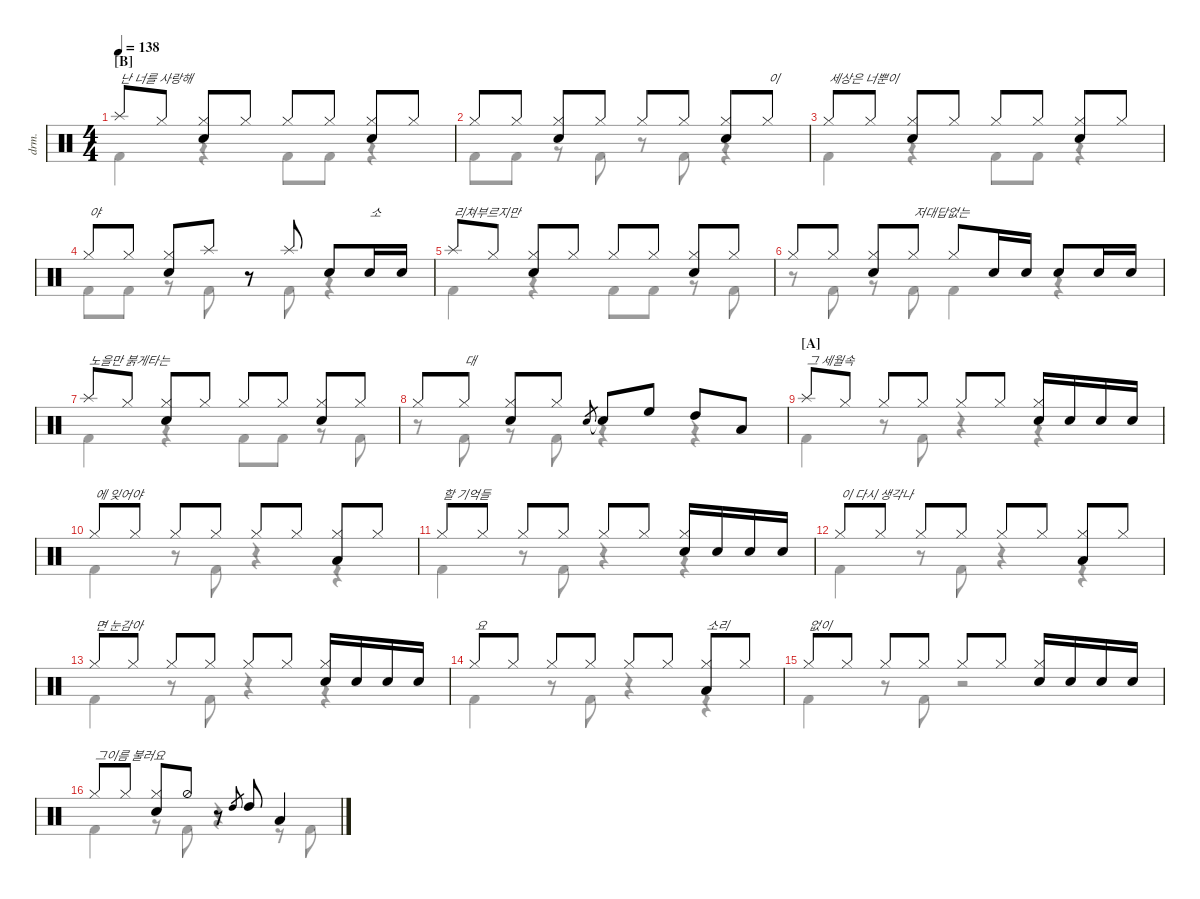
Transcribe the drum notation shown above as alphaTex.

\defaultSystemsLayout 4
\hideDynamics
\bracketExtendMode nobrackets
\track ("Drumkit" "drm.") {instrument percussion}
\staff {score}
\articulation defaults
\voice
\ts (4 4)
\section ("B" "")
\tempo 138
\clef neutral
\ks c "Splash (hit)".8{txt "난 너를 사랑해" dy mf beam Up} "Hi-Hat (closed)".8{beam Up}
("Hi-Hat (closed)" "Snare (hit) 2").8{beam Up} "Hi-Hat (closed)".8{beam Up} "Hi-Hat (closed)".8{beam Up} "Hi-Hat (closed)".8{beam Up} ("Hi-Hat (closed)" "Snare (hit) 2").8{beam Up} "Hi-Hat (closed)".8{beam Up} |
"Hi-Hat (closed)".8{beam Up} "Hi-Hat (closed)".8{beam Up} ("Hi-Hat (closed)" "Snare (hit) 2").8{beam Up} "Hi-Hat (closed)".8{beam Up} "Hi-Hat (closed)".8{beam Up} "Hi-Hat (closed)".8{beam Up} ("Hi-Hat (closed)" "Snare (hit) 2").8{beam Up} "Hi-Hat (closed)".8{txt "이" beam Up} |
"Hi-Hat (closed)".8{txt "세상은 너뿐이" beam Up} "Hi-Hat (closed)".8{beam Up} ("Hi-Hat (closed)" "Snare (hit) 2").8{beam Up} "Hi-Hat (closed)".8{beam Up} "Hi-Hat (closed)".8{beam Up} "Hi-Hat (closed)".8{beam Up} ("Hi-Hat (closed)" "Snare (hit) 2").8{beam Up} "Hi-Hat (closed)".8{beam Up} |
"Hi-Hat (closed)".8{txt "야" beam Up} "Hi-Hat (closed)".8{beam Up} ("Hi-Hat (closed)" "Snare (hit) 2").8{beam Up} "Splash (hit)".8{beam Up} r.8{beam Up} "Splash (hit)".8{beam Up} "Snare (hit) 2".8{beam Up} "Snare (hit) 2".16{txt "소" beam Up} "Snare (hit) 2".16{beam Up} |
"Splash (hit)".8{txt "리쳐부르지만" beam Up} "Hi-Hat (closed)".8{beam Up} ("Hi-Hat (closed)" "Snare (hit) 2").8{beam Up} "Hi-Hat (closed)".8{beam Up} "Hi-Hat (closed)".8{beam Up} "Hi-Hat (closed)".8{beam Up} ("Hi-Hat (closed)" "Snare (hit) 2").8{beam Up} "Hi-Hat (closed)".8{beam Up} |
"Hi-Hat (closed)".8{beam Up} "Hi-Hat (closed)".8{beam Up} ("Hi-Hat (closed)" "Snare (hit) 2").8{beam Up} "Hi-Hat (closed)".8{txt "저대답없는" beam Up} "Hi-Hat (closed)".8{beam Up} "Snare (hit) 2".16{beam Up} "Snare (hit) 2".16{beam Up} "Snare (hit) 2".8{beam Up} "Snare (hit) 2".16{beam Up} "Snare (hit) 2".16{beam Up} |
"Splash (hit)".8{txt "노을만 붉게타는" beam Up} "Hi-Hat (closed)".8{beam Up} ("Hi-Hat (closed)" "Snare (hit) 2").8{beam Up} "Hi-Hat (closed)".8{beam Up} "Hi-Hat (closed)".8{beam Up} "Hi-Hat (closed)".8{beam Up} ("Hi-Hat (closed)" "Snare (hit) 2").8{beam Up} "Hi-Hat (closed)".8{beam Up} |
"Hi-Hat (closed)".8{beam Up} "Hi-Hat (closed)".8{txt "대" beam Up} ("Hi-Hat (closed)" "Snare (hit) 2").8{beam Up} "Hi-Hat (closed)".8{beam Up} "Snare (hit) 2".8{gr beam Up} "Snare (hit) 2"{t}.8{beam Up} "High Floor Tom (hit)".8{beam Up} "High Tom (hit)".8{beam Up} "Low Tom (hit)".8{beam Up} |
\section ("A" "")
"Splash (hit)".8{txt "그 세월속" beam Up} "Hi-Hat (closed)".8{beam Up} "Hi-Hat (closed)".8{beam Up} "Hi-Hat (closed)".8{beam Up} "Hi-Hat (closed)".8{beam Up} "Hi-Hat (closed)".8{beam Up} ("Hi-Hat (closed)" "Snare (hit) 2").16{beam Up} "Snare (hit) 2".16{beam Up} "Snare (hit) 2".16{beam Up} "Snare (hit) 2".16{beam Up} |
"Hi-Hat (closed)".8{txt "에 잊어야" beam Up} "Hi-Hat (closed)".8{beam Up} "Hi-Hat (closed)".8{beam Up} "Hi-Hat (closed)".8{beam Up} "Hi-Hat (closed)".8{beam Up} "Hi-Hat (closed)".8{beam Up} ("Hi-Hat (closed)" "Low Tom (hit)").8{beam Up} "Hi-Hat (closed)".8{beam Up} |
"Hi-Hat (closed)".8{txt "할 기억들" beam Up} "Hi-Hat (closed)".8{beam Up} "Hi-Hat (closed)".8{beam Up} "Hi-Hat (closed)".8{beam Up} "Hi-Hat (closed)".8{beam Up} "Hi-Hat (closed)".8{beam Up} ("Hi-Hat (closed)" "Snare (hit) 2").16{beam Up} "Snare (hit) 2".16{beam Up} "Snare (hit) 2".16{beam Up} "Snare (hit) 2".16{beam Up} |
"Hi-Hat (closed)".8{txt "이 다시 생각나" beam Up} "Hi-Hat (closed)".8{beam Up} "Hi-Hat (closed)".8{beam Up} "Hi-Hat (closed)".8{beam Up} "Hi-Hat (closed)".8{beam Up} "Hi-Hat (closed)".8{beam Up} ("Hi-Hat (closed)" "Low Tom (hit)").8{beam Up} "Hi-Hat (closed)".8{beam Up} |
"Hi-Hat (closed)".8{txt "면 눈감아" beam Up} "Hi-Hat (closed)".8{beam Up} "Hi-Hat (closed)".8{beam Up} "Hi-Hat (closed)".8{beam Up} "Hi-Hat (closed)".8{beam Up} "Hi-Hat (closed)".8{beam Up} ("Hi-Hat (closed)" "Snare (hit) 2").16{beam Up} "Snare (hit) 2".16{beam Up} "Snare (hit) 2".16{beam Up} "Snare (hit) 2".16{beam Up} |
"Hi-Hat (closed)".8{txt "요 " beam Up} "Hi-Hat (closed)".8{beam Up} "Hi-Hat (closed)".8{beam Up} "Hi-Hat (closed)".8{beam Up} "Hi-Hat (closed)".8{beam Up} "Hi-Hat (closed)".8{beam Up} ("Hi-Hat (closed)" "Low Tom (hit)").8{txt "소리" beam Up} "Hi-Hat (closed)".8{beam Up} |
"Hi-Hat (closed)".8{txt "없이" beam Up} "Hi-Hat (closed)".8{beam Up} "Hi-Hat (closed)".8{beam Up} "Hi-Hat (closed)".8{beam Up} "Hi-Hat (closed)".8{beam Up} "Hi-Hat (closed)".8{beam Up} ("Hi-Hat (closed)" "Snare (hit) 2").16{beam Up} "Snare (hit) 2".16{beam Up} "Snare (hit) 2".16{beam Up} "Snare (hit) 2".16{beam Up} |
"Hi-Hat (closed)".8{txt "그이름 불러요" beam Up} "Hi-Hat (closed)".8{beam Up} ("Hi-Hat (closed)" "Snare (hit) 2").8{beam Up} "Hi-Hat (half)".8{beam Up} r.8{beam Up} "High Tom (hit)".8{gr beam Up} "High Tom (hit)".8{beam Up} "Low Tom (hit)".4{beam Up}
\voice
\clef neutral
\ottava regular
\simile none
\ks c
|
|
|
|
|
|
|
|
|
|
|
|
|
|
|
\voice
\clef neutral
\ottava regular
\simile none
\ks c "Kick (hit) 2".4{dy mf beam Down}
r.4{beam Down} "Kick (hit) 2".8{beam Down} "Kick (hit) 2".8{beam Down} r.4{beam Down} |
"Kick (hit) 2".8{beam Down} "Kick (hit) 2".8{beam Down} r.8{beam Down} "Kick (hit) 2".8{beam Down} r.8{beam Down} "Kick (hit) 2".8{beam Down} r.4{beam Down} |
"Kick (hit) 2".4{beam Down} r.4{beam Down} "Kick (hit) 2".8{beam Down} "Kick (hit) 2".8{beam Down} r.4{beam Down} |
"Kick (hit) 2".8{beam Down} "Kick (hit) 2".8{beam Down} r.8{beam Down} "Kick (hit) 2".8{beam Down} r.8{beam Down} "Kick (hit) 2".8{beam Down} r.4{beam Down} |
"Kick (hit) 2".4{beam Down} r.4{beam Down} "Kick (hit) 2".8{beam Down} "Kick (hit) 2".8{beam Down} r.8{beam Down} "Kick (hit) 2".8{beam Down} |
r.8{beam Down} "Kick (hit) 2".8{beam Down} r.8{beam Down} "Kick (hit) 2".8{beam Down} "Kick (hit) 2".4{beam Down} r.4{beam Down} |
"Kick (hit) 2".4{beam Down} r.4{beam Down} "Kick (hit) 2".8{beam Down} "Kick (hit) 2".8{beam Down} r.8{beam Down} "Kick (hit) 2".8{beam Down} |
r.8{beam Down} "Kick (hit) 2".8{beam Down} r.8{beam Down} "Kick (hit) 2".8{beam Down} r.4{beam Down} r.4{beam Down} |
"Kick (hit) 2".4{beam Down} r.8{beam Down} "Kick (hit) 2".8{beam Down} r.4{beam Down} r.4{beam Down} |
"Kick (hit) 2".4{beam Down} r.8{beam Down} "Kick (hit) 2".8{beam Down} r.4{beam Down} r.4{beam Down} |
"Kick (hit) 2".4{beam Down} r.8{beam Down} "Kick (hit) 2".8{beam Down} r.4{beam Down} r.4{beam Down} |
"Kick (hit) 2".4{beam Down} r.8{beam Down} "Kick (hit) 2".8{beam Down} r.4{beam Down} r.4{beam Down} |
"Kick (hit) 2".4{beam Down} r.8{beam Down} "Kick (hit) 2".8{beam Down} r.4{beam Down} r.4{beam Down} |
"Kick (hit) 2".4{beam Down} r.8{beam Down} "Kick (hit) 2".8{beam Down} r.4{beam Down} r.4{beam Down} |
"Kick (hit) 2".4{beam Down} r.8{beam Down} "Kick (hit) 2".8{beam Down} r.2{beam Down} |
"Kick (hit) 2".4{beam Down} r.8{beam Down} "Kick (hit) 2".8{beam Down} r.4{beam Down} r.8{beam Down} "Kick (hit) 2".8{beam Down}
